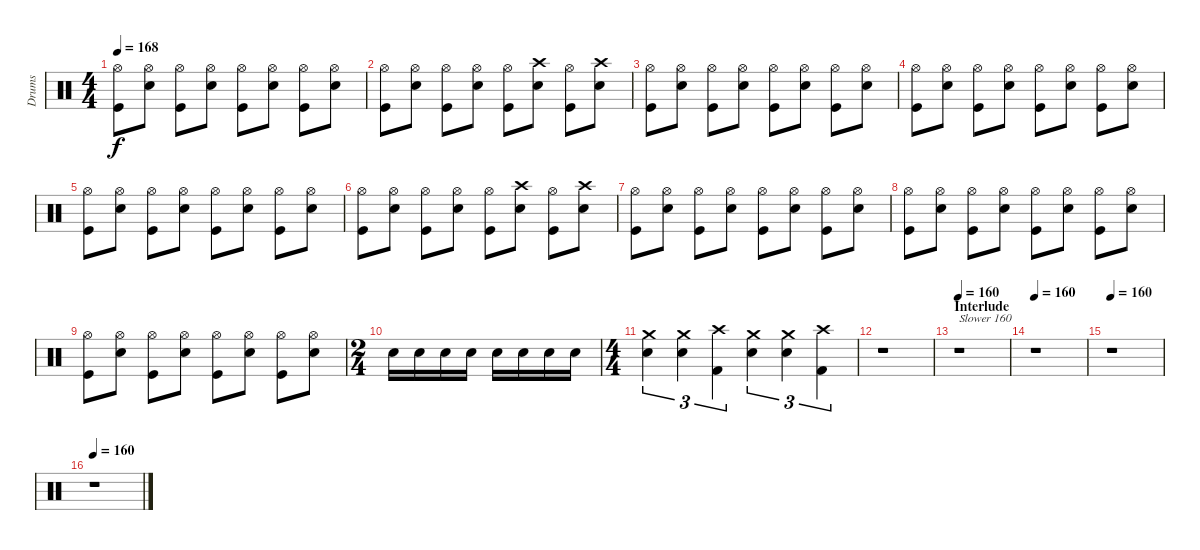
\track ("Drums" "Drums") {instrument percussion}
\staff {score}
\articulation defaults
\ts (4 4)
\tempo 168
\clef neutral
\ks c
("Hi-Hat (open)" "Kick (hit)").8{dy f} ("Hi-Hat (open)" "Snare (hit) 2").8 ("Hi-Hat (open)" "Kick (hit)").8 ("Hi-Hat (open)" "Snare (hit) 2").8 ("Hi-Hat (open)" "Kick (hit)").8 ("Hi-Hat (open)" "Snare (hit) 2").8 ("Hi-Hat (open)" "Kick (hit)").8 ("Hi-Hat (open)" "Snare (hit) 2").8 |
("Hi-Hat (open)" "Kick (hit)").8 ("Hi-Hat (open)" "Snare (hit) 2").8 ("Hi-Hat (open)" "Kick (hit)").8 ("Hi-Hat (open)" "Snare (hit) 2").8 ("Hi-Hat (open)" "Kick (hit)").8 ("Crash high (hit)" "Snare (hit) 2").8 ("Hi-Hat (open)" "Kick (hit)").8 ("Crash high (hit)" "Snare (hit) 2").8 |
("Hi-Hat (open)" "Kick (hit)").8 ("Hi-Hat (open)" "Snare (hit) 2").8 ("Hi-Hat (open)" "Kick (hit)").8 ("Hi-Hat (open)" "Snare (hit) 2").8 ("Hi-Hat (open)" "Kick (hit)").8 ("Hi-Hat (open)" "Snare (hit) 2").8 ("Hi-Hat (open)" "Kick (hit)").8 ("Hi-Hat (open)" "Snare (hit) 2").8 |
("Hi-Hat (open)" "Kick (hit)").8 ("Hi-Hat (open)" "Snare (hit) 2").8 ("Hi-Hat (open)" "Kick (hit)").8 ("Hi-Hat (open)" "Snare (hit) 2").8 ("Hi-Hat (open)" "Kick (hit)").8 ("Hi-Hat (open)" "Snare (hit) 2").8 ("Hi-Hat (open)" "Kick (hit)").8 ("Hi-Hat (open)" "Snare (hit) 2").8 |
("Hi-Hat (open)" "Kick (hit)").8 ("Hi-Hat (open)" "Snare (hit) 2").8 ("Hi-Hat (open)" "Kick (hit)").8 ("Hi-Hat (open)" "Snare (hit) 2").8 ("Hi-Hat (open)" "Kick (hit)").8 ("Hi-Hat (open)" "Snare (hit) 2").8 ("Hi-Hat (open)" "Kick (hit)").8 ("Hi-Hat (open)" "Snare (hit) 2").8 |
("Hi-Hat (open)" "Kick (hit)").8 ("Hi-Hat (open)" "Snare (hit) 2").8 ("Hi-Hat (open)" "Kick (hit)").8 ("Hi-Hat (open)" "Snare (hit) 2").8 ("Hi-Hat (open)" "Kick (hit)").8 ("Crash high (hit)" "Snare (hit) 2").8 ("Hi-Hat (open)" "Kick (hit)").8 ("Crash high (hit)" "Snare (hit) 2").8 |
("Hi-Hat (open)" "Kick (hit)").8 ("Hi-Hat (open)" "Snare (hit) 2").8 ("Hi-Hat (open)" "Kick (hit)").8 ("Hi-Hat (open)" "Snare (hit) 2").8 ("Hi-Hat (open)" "Kick (hit)").8 ("Hi-Hat (open)" "Snare (hit) 2").8 ("Hi-Hat (open)" "Kick (hit)").8 ("Hi-Hat (open)" "Snare (hit) 2").8 |
("Hi-Hat (open)" "Kick (hit)").8 ("Hi-Hat (open)" "Snare (hit) 2").8 ("Hi-Hat (open)" "Kick (hit)").8 ("Hi-Hat (open)" "Snare (hit) 2").8 ("Hi-Hat (open)" "Kick (hit)").8 ("Hi-Hat (open)" "Snare (hit) 2").8 ("Hi-Hat (open)" "Kick (hit)").8 ("Hi-Hat (open)" "Snare (hit) 2").8 |
("Hi-Hat (open)" "Kick (hit)").8 ("Hi-Hat (open)" "Snare (hit) 2").8 ("Hi-Hat (open)" "Kick (hit)").8 ("Hi-Hat (open)" "Snare (hit) 2").8 ("Hi-Hat (open)" "Kick (hit)").8 ("Hi-Hat (open)" "Snare (hit) 2").8 ("Hi-Hat (open)" "Kick (hit)").8 ("Hi-Hat (open)" "Snare (hit) 2").8 |
\ts (2 4)
"Snare (hit) 2".16 "Snare (hit) 2".16 "Snare (hit) 2".16 "Snare (hit) 2".16 "Snare (hit) 2".16 "Snare (hit) 2".16 "Snare (hit) 2".16 "Snare (hit) 2".16 |
\ts (4 4)
("Crash medium (hit)" "Snare (hit) 2").4{tu (3 2)} ("Crash medium (hit)" "Snare (hit) 2").4{tu (3 2)} ("Crash high (hit)" "Kick (hit) 2").4{tu (3 2)} ("Crash medium (hit)" "Snare (hit) 2").4{tu (3 2)} ("Crash medium (hit)" "Snare (hit) 2").4{tu (3 2)} ("Crash high (hit)" "Kick (hit) 2").4{tu (3 2)} |
r.1 |
\section ("" "Interlude")
\tempo 160
r.1{txt "Slower 160"} |
\tempo 160
r.1 |
\tempo 160
r.1 |
\tempo 160
r.1
